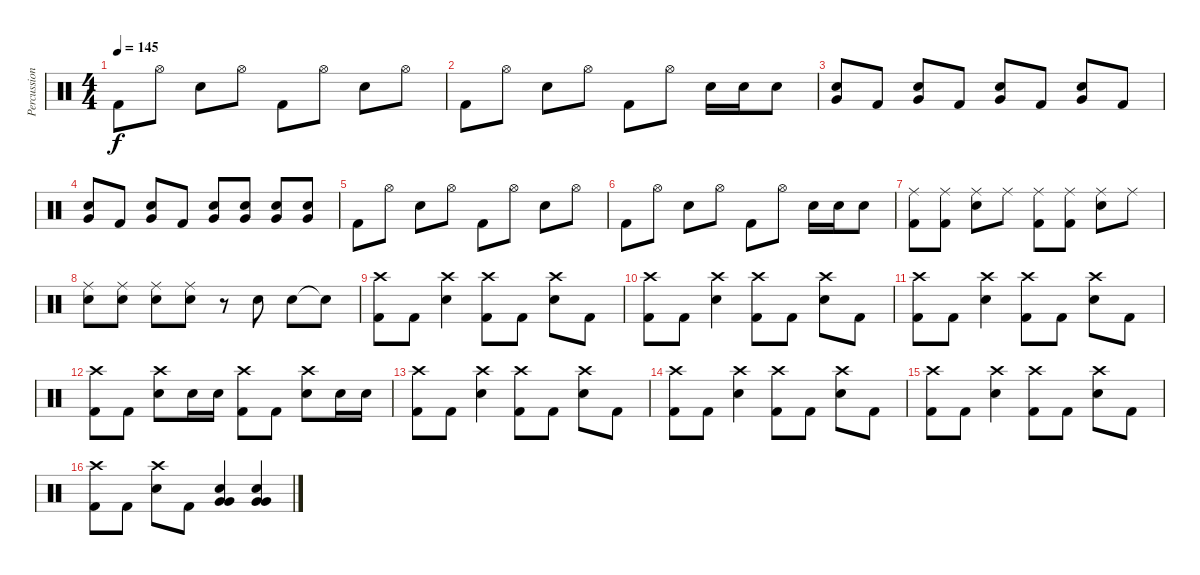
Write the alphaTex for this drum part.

\track ("Percussion" "Percussion") {instrument percussion}
\staff {score}
\articulation defaults
\ts (4 4)
\tempo 145
\clef neutral
\ks c "Kick (hit) 2".8{dy f} "Hi-Hat (open)".8 "Electric Snare (hit)".8 "Hi-Hat (open)".8 "Kick (hit) 2".8 "Hi-Hat (open)".8 "Electric Snare (hit)".8 "Hi-Hat (open)".8
|
"Kick (hit) 2".8 "Hi-Hat (open)".8 "Electric Snare (hit)".8 "Hi-Hat (open)".8 "Kick (hit) 2".8 "Hi-Hat (open)".8 "Electric Snare (hit)".16 "Electric Snare (hit)".16 "Electric Snare (hit)".8 |
("Electric Snare (hit)" "Very Low Tom (hit)").8 "Kick (hit) 2".8 ("Electric Snare (hit)" "Very Low Tom (hit)").8 "Kick (hit) 2".8 ("Electric Snare (hit)" "Very Low Tom (hit)").8 "Kick (hit) 2".8 ("Electric Snare (hit)" "Very Low Tom (hit)").8 "Kick (hit) 2".8 |
("Electric Snare (hit)" "Very Low Tom (hit)").8 "Kick (hit) 2".8 ("Electric Snare (hit)" "Very Low Tom (hit)").8 "Kick (hit) 2".8 ("Electric Snare (hit)" "Very Low Tom (hit)").8 ("Electric Snare (hit)" "Very Low Tom (hit)").8 ("Electric Snare (hit)" "Very Low Tom (hit)").8 ("Electric Snare (hit)" "Very Low Tom (hit)").8 |
"Kick (hit) 2".8 "Hi-Hat (open)".8 "Electric Snare (hit)".8 "Hi-Hat (open)".8 "Kick (hit) 2".8 "Hi-Hat (open)".8 "Electric Snare (hit)".8 "Hi-Hat (open)".8 |
"Kick (hit) 2".8 "Hi-Hat (open)".8 "Electric Snare (hit)".8 "Hi-Hat (open)".8 "Kick (hit) 2".8 "Hi-Hat (open)".8 "Electric Snare (hit)".16 "Electric Snare (hit)".16 "Electric Snare (hit)".8 |
("Ride (middle)" "Kick (hit) 2").8 ("Ride (middle)" "Kick (hit) 2").8 ("Ride (middle)" "Electric Snare (hit)").8 "Ride (middle)".8 ("Ride (middle)" "Kick (hit) 2").8 ("Ride (middle)" "Kick (hit) 2").8 ("Ride (middle)" "Electric Snare (hit)").8 "Ride (middle)".8 |
("Ride (middle)" "Electric Snare (hit)").8 ("Ride (middle)" "Electric Snare (hit)").8 ("Ride (middle)" "Electric Snare (hit)").8 ("Ride (middle)" "Electric Snare (hit)").8 r.8 "Electric Snare (hit)".8 "Electric Snare (hit)".8 "Snare (hit)"{t}.8 |
("Crash high (hit)" "Kick (hit) 2").8 "Kick (hit) 2".8 ("Crash high (hit)" "Electric Snare (hit)").4 ("Crash high (hit)" "Kick (hit) 2").8 "Kick (hit) 2".8 ("Crash high (hit)" "Electric Snare (hit)").8 "Kick (hit) 2".8 |
("Crash high (hit)" "Kick (hit) 2").8 "Kick (hit) 2".8 ("Crash high (hit)" "Electric Snare (hit)").4 ("Crash high (hit)" "Kick (hit) 2").8 "Kick (hit) 2".8 ("Crash high (hit)" "Electric Snare (hit)").8 "Kick (hit) 2".8 |
("Crash high (hit)" "Kick (hit) 2").8 "Kick (hit) 2".8 ("Crash high (hit)" "Electric Snare (hit)").4 ("Crash high (hit)" "Kick (hit) 2").8 "Kick (hit) 2".8 ("Crash high (hit)" "Electric Snare (hit)").8 "Kick (hit) 2".8 |
("Crash high (hit)" "Kick (hit) 2").8 "Kick (hit) 2".8 ("Crash high (hit)" "Electric Snare (hit)").8 "Electric Snare (hit)".16 "Electric Snare (hit)".16 ("Crash high (hit)" "Kick (hit) 2").8 "Kick (hit) 2".8 ("Crash high (hit)" "Electric Snare (hit)").8 "Electric Snare (hit)".16 "Electric Snare (hit)".16 |
("Crash high (hit)" "Kick (hit) 2").8 "Kick (hit) 2".8 ("Crash high (hit)" "Electric Snare (hit)").4 ("Crash high (hit)" "Kick (hit) 2").8 "Kick (hit) 2".8 ("Crash high (hit)" "Electric Snare (hit)").8 "Kick (hit) 2".8 |
("Crash high (hit)" "Kick (hit) 2").8 "Kick (hit) 2".8 ("Crash high (hit)" "Electric Snare (hit)").4 ("Crash high (hit)" "Kick (hit) 2").8 "Kick (hit) 2".8 ("Crash high (hit)" "Electric Snare (hit)").8 "Kick (hit) 2".8 |
("Crash high (hit)" "Kick (hit) 2").8 "Kick (hit) 2".8 ("Crash high (hit)" "Electric Snare (hit)").4 ("Crash high (hit)" "Kick (hit) 2").8 "Kick (hit) 2".8 ("Crash high (hit)" "Electric Snare (hit)").8 "Kick (hit) 2".8 |
("Crash high (hit)" "Kick (hit) 2").8 "Kick (hit) 2".8 ("Crash high (hit)" "Electric Snare (hit)").8 "Kick (hit) 2".8 ("Electric Snare (hit)" "Very Low Tom (hit)" "Very Low Tom (hit)").4 ("Electric Snare (hit)" "Very Low Tom (hit)" "Very Low Tom (hit)").4
